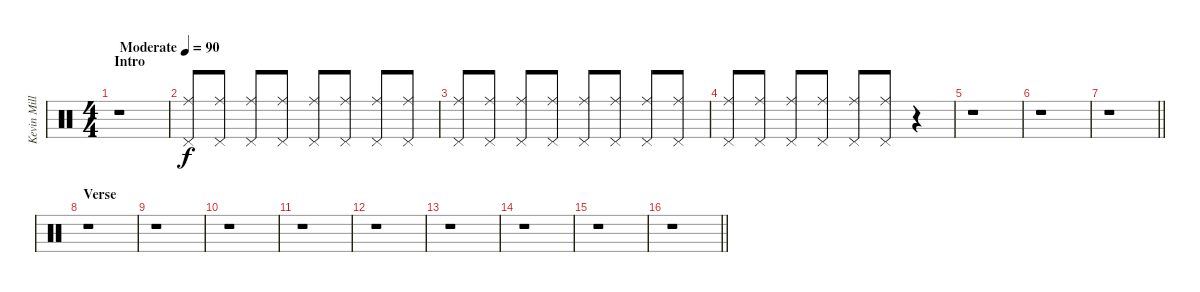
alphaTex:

\track ("Kevin Miller (Drums)" "Kevin Mill") {instrument percussion}
\staff {score}
\articulation defaults
\ts (4 4)
\section ("" "Intro")
\tempo (90 "Moderate")
\clef neutral
\ks c
r.1{dy f} |
("Ride (middle)" "Pedal Hi-Hat (hit)").8 ("Ride (middle)" "Pedal Hi-Hat (hit)").8 ("Ride (middle)" "Pedal Hi-Hat (hit)").8 ("Ride (middle)" "Pedal Hi-Hat (hit)").8 ("Ride (middle)" "Pedal Hi-Hat (hit)").8 ("Ride (middle)" "Pedal Hi-Hat (hit)").8 ("Ride (middle)" "Pedal Hi-Hat (hit)").8 ("Ride (middle)" "Pedal Hi-Hat (hit)").8 |
("Ride (middle)" "Pedal Hi-Hat (hit)").8 ("Ride (middle)" "Pedal Hi-Hat (hit)").8 ("Ride (middle)" "Pedal Hi-Hat (hit)").8 ("Ride (middle)" "Pedal Hi-Hat (hit)").8 ("Ride (middle)" "Pedal Hi-Hat (hit)").8 ("Ride (middle)" "Pedal Hi-Hat (hit)").8 ("Ride (middle)" "Pedal Hi-Hat (hit)").8 ("Ride (middle)" "Pedal Hi-Hat (hit)").8 |
("Ride (middle)" "Pedal Hi-Hat (hit)").8 ("Ride (middle)" "Pedal Hi-Hat (hit)").8 ("Ride (middle)" "Pedal Hi-Hat (hit)").8 ("Ride (middle)" "Pedal Hi-Hat (hit)").8 ("Ride (middle)" "Pedal Hi-Hat (hit)").8 ("Ride (middle)" "Pedal Hi-Hat (hit)").8 r.4 |
r.1 |
r.1 |
\barLineRight lightlight
r.1 |
\section ("" "Verse")
r.1 |
r.1 |
r.1 |
r.1 |
r.1 |
r.1 |
r.1 |
r.1 |
\barLineRight lightlight
r.1
